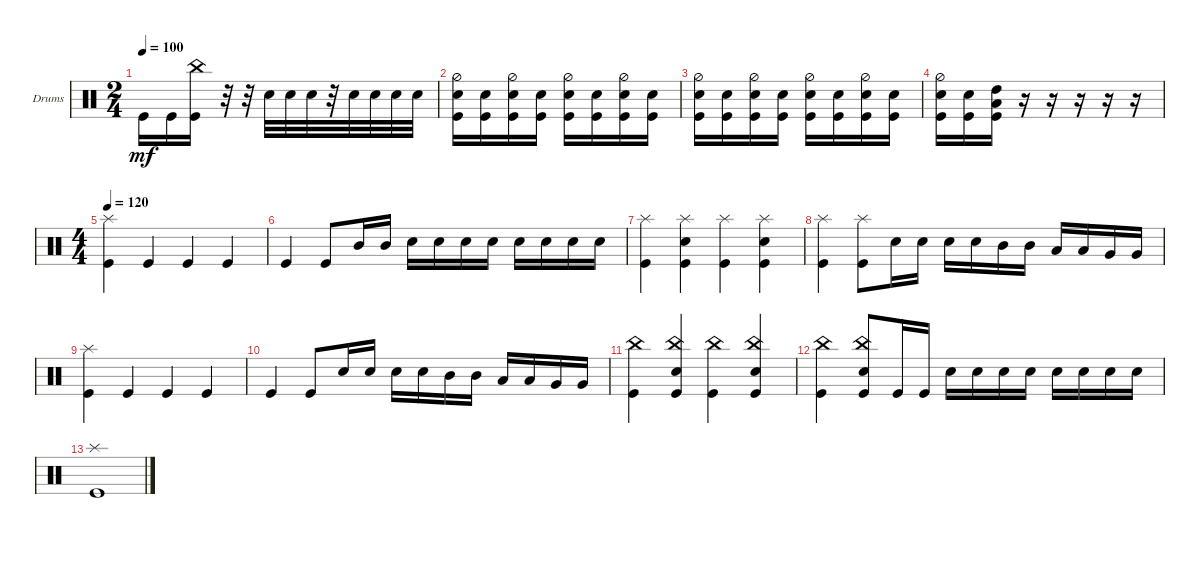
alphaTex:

\bracketExtendMode groupsimilarinstruments
\firstSystemTrackNameOrientation horizontal
\otherSystemsTrackNameOrientation horizontal
\track ("Drumkit" "Drums") {instrument percussion}
\staff {score}
\articulation defaults
\ts (2 4)
\tempo 100
\clef neutral
\ks c "Kick (hit)".16{dy mf} "Kick (hit)".16
("China (hit)" "Kick (hit)").16 r.32 r.32 "Snare (hit) 2".32 "Snare (hit) 2".32 "Snare (hit) 2".32 r.32 "Snare (hit) 2".32 "Snare (hit) 2".32 "Snare (hit) 2".32 "Snare (hit) 2".32 |
("Kick (hit)" "Snare (hit) 2" "Hi-Hat (half)").16 ("Kick (hit)" "Snare (hit) 2").16 ("Kick (hit)" "Snare (hit) 2" "Hi-Hat (half)").16 ("Kick (hit)" "Snare (hit) 2").16 ("Kick (hit)" "Snare (hit) 2" "Hi-Hat (half)").16 ("Kick (hit)" "Snare (hit) 2").16 ("Kick (hit)" "Snare (hit) 2" "Hi-Hat (half)").16 ("Kick (hit)" "Snare (hit) 2").16 |
("Kick (hit)" "Snare (hit) 2" "Hi-Hat (half)").16 ("Kick (hit)" "Snare (hit) 2").16 ("Kick (hit)" "Snare (hit) 2" "Hi-Hat (half)").16 ("Kick (hit)" "Snare (hit) 2").16 ("Kick (hit)" "Snare (hit) 2" "Hi-Hat (half)").16 ("Kick (hit)" "Snare (hit) 2").16 ("Kick (hit)" "Snare (hit) 2" "Hi-Hat (half)").16 ("Kick (hit)" "Snare (hit) 2").16 |
("Kick (hit)" "Snare (hit) 2" "Hi-Hat (half)").16 ("Kick (hit)" "Snare (hit) 2").16 ("Kick (hit)" "Low Tom (hit)" "High Tom (hit)").16 r.16 r.16 r.16 r.16 r.16 |
\ts (4 4)
\tempo 120
("Kick (hit)" "Splash (hit)").4 "Kick (hit)".4 "Kick (hit)".4 "Kick (hit)".4 |
"Kick (hit)".4 "Kick (hit)".8 "Mid Tom (hit)".16 "Mid Tom (hit)".16 "Snare (hit) 2".16 "Snare (hit) 2".16 "Snare (hit) 2".16 "Snare (hit) 2".16 "Snare (hit) 2".16 "Snare (hit) 2".16 "Snare (hit) 2".16 "Snare (hit) 2".16 |
("Kick (hit)" "Splash (hit)").4 ("Kick (hit)" "Splash (hit)" "Snare (hit) 2").4 ("Kick (hit)" "Splash (hit)").4 ("Kick (hit)" "Splash (hit)" "Snare (hit) 2").4 |
("Splash (hit)" "Kick (hit)").4 ("Kick (hit)" "Splash (hit)").8 "Snare (hit) 2".16 "Snare (hit) 2".16 "Snare (hit) 2".16 "Snare (hit) 2".16 "Mid Tom (hit)".16 "Mid Tom (hit)".16 "Low Tom (hit)".16 "Low Tom (hit)".16 "Very Low Tom (hit)".16 "Very Low Tom (hit)".16 |
("Kick (hit)" "Splash (hit)").4 "Kick (hit)".4 "Kick (hit)".4 "Kick (hit)".4 |
"Kick (hit)".4 "Kick (hit)".8 "Snare (hit) 2".16 "Snare (hit) 2".16 "Snare (hit) 2".16 "Snare (hit) 2".16 "Mid Tom (hit)".16 "Mid Tom (hit)".16 "Low Tom (hit)".16 "Low Tom (hit)".16 "Very Low Tom (hit)".16 "Very Low Tom (hit)".16 |
("Kick (hit)" "China (hit)").4 ("Kick (hit)" "China (hit)" "Snare (hit) 2").4 ("Kick (hit)" "China (hit)").4 ("Kick (hit)" "China (hit)" "Snare (hit) 2").4 |
("Kick (hit)" "China (hit)").4 ("Kick (hit)" "China (hit)" "Snare (hit) 2").8 "Kick (hit)".16 "Kick (hit)".16 "Snare (hit) 2".16 "Snare (hit) 2".16 "Snare (hit) 2".16 "Snare (hit) 2".16 "Snare (hit) 2".16 "Snare (hit) 2".16 "Snare (hit) 2".16 "Snare (hit) 2".16 |
("Splash (hit)" "Kick (hit)").1
